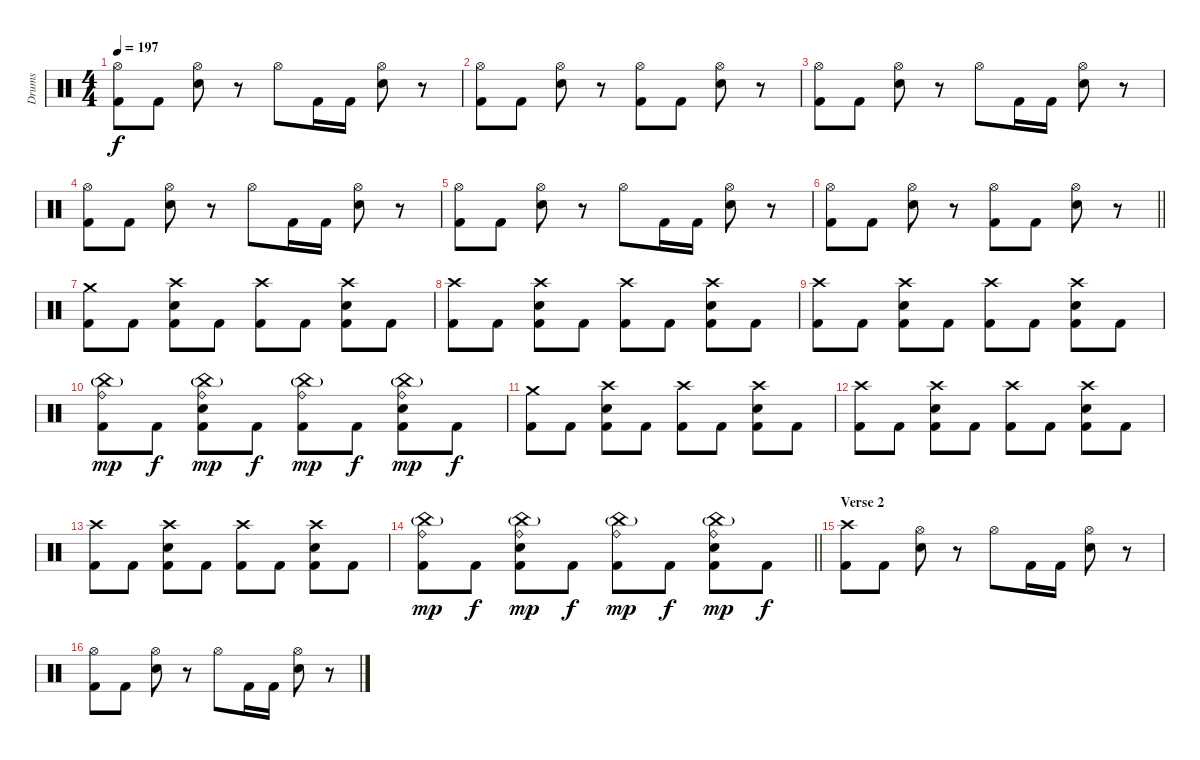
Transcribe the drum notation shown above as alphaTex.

\track ("Drums" "Drums") {instrument percussion}
\staff {score}
\articulation defaults
\ts (4 4)
\tempo 197
\clef neutral
\ks c
("Hi-Hat (open)" "Kick (hit) 2").8{dy f} "Kick (hit) 2".8 ("Hi-Hat (open)" "Electric Snare (hit)").8 r.8 "Hi-Hat (open)".8 "Kick (hit) 2".16 "Kick (hit) 2".16 ("Hi-Hat (open)" "Electric Snare (hit)").8 r.8 |
("Hi-Hat (open)" "Kick (hit) 2").8 "Kick (hit) 2".8 ("Hi-Hat (open)" "Electric Snare (hit)").8 r.8 ("Hi-Hat (open)" "Kick (hit) 2").8 "Kick (hit) 2".8 ("Hi-Hat (open)" "Electric Snare (hit)").8 r.8 |
("Hi-Hat (open)" "Kick (hit) 2").8 "Kick (hit) 2".8 ("Hi-Hat (open)" "Electric Snare (hit)").8 r.8 "Hi-Hat (open)".8 "Kick (hit) 2".16 "Kick (hit) 2".16 ("Hi-Hat (open)" "Electric Snare (hit)").8 r.8 |
("Hi-Hat (open)" "Kick (hit) 2").8 "Kick (hit) 2".8 ("Hi-Hat (open)" "Electric Snare (hit)").8 r.8 "Hi-Hat (open)".8 "Kick (hit) 2".16 "Kick (hit) 2".16 ("Hi-Hat (open)" "Electric Snare (hit)").8 r.8 |
("Hi-Hat (open)" "Kick (hit) 2").8 "Kick (hit) 2".8 ("Hi-Hat (open)" "Electric Snare (hit)").8 r.8 "Hi-Hat (open)".8 "Kick (hit) 2".16 "Kick (hit) 2".16 ("Hi-Hat (open)" "Electric Snare (hit)").8 r.8 |
\barLineRight lightlight
("Hi-Hat (open)" "Kick (hit) 2").8 "Kick (hit) 2".8 ("Hi-Hat (open)" "Electric Snare (hit)").8 r.8 ("Hi-Hat (open)" "Kick (hit) 2").8 "Kick (hit) 2".8 ("Hi-Hat (open)" "Electric Snare (hit)").8 r.8 |
\section ("" "")
("Crash medium (hit)" "Kick (hit) 2").8 "Kick (hit) 2".8 ("Crash high (hit)" "Electric Snare (hit)" "Kick (hit) 2").8 "Kick (hit) 2".8 ("Crash high (hit)" "Kick (hit) 2").8 "Kick (hit) 2".8 ("Crash high (hit)" "Electric Snare (hit)" "Kick (hit) 2").8 "Kick (hit) 2".8 |
("Crash high (hit)" "Kick (hit) 2").8 "Kick (hit) 2".8 ("Crash high (hit)" "Electric Snare (hit)" "Kick (hit) 2").8 "Kick (hit) 2".8 ("Crash high (hit)" "Kick (hit) 2").8 "Kick (hit) 2".8 ("Crash high (hit)" "Electric Snare (hit)" "Kick (hit) 2").8 "Kick (hit) 2".8 |
("Crash high (hit)" "Kick (hit) 2").8 "Kick (hit) 2".8 ("Crash high (hit)" "Electric Snare (hit)" "Kick (hit) 2").8 "Kick (hit) 2".8 ("Crash high (hit)" "Kick (hit) 2").8 "Kick (hit) 2".8 ("Crash high (hit)" "Electric Snare (hit)" "Kick (hit) 2").8 "Kick (hit) 2".8 |
("China (hit)"{g} "Ride (bell)" "Kick (hit) 2").8{dy mp} "Kick (hit) 2".8{dy f} ("China (hit)"{g} "Ride (bell)" "Electric Snare (hit)" "Kick (hit) 2").8{dy mp} "Kick (hit) 2".8{dy f} ("China (hit)"{g} "Ride (bell)" "Kick (hit) 2").8{dy mp} "Kick (hit) 2".8{dy f} ("China (hit)"{g} "Ride (bell)" "Electric Snare (hit)" "Kick (hit) 2").8{dy mp} "Kick (hit) 2".8{dy f} |
("Crash medium (hit)" "Kick (hit) 2").8 "Kick (hit) 2".8 ("Crash high (hit)" "Electric Snare (hit)" "Kick (hit) 2").8 "Kick (hit) 2".8 ("Crash high (hit)" "Kick (hit) 2").8 "Kick (hit) 2".8 ("Crash high (hit)" "Electric Snare (hit)" "Kick (hit) 2").8 "Kick (hit) 2".8 |
("Crash high (hit)" "Kick (hit) 2").8 "Kick (hit) 2".8 ("Crash high (hit)" "Electric Snare (hit)" "Kick (hit) 2").8 "Kick (hit) 2".8 ("Crash high (hit)" "Kick (hit) 2").8 "Kick (hit) 2".8 ("Crash high (hit)" "Electric Snare (hit)" "Kick (hit) 2").8 "Kick (hit) 2".8 |
("Crash high (hit)" "Kick (hit) 2").8 "Kick (hit) 2".8 ("Crash high (hit)" "Electric Snare (hit)" "Kick (hit) 2").8 "Kick (hit) 2".8 ("Crash high (hit)" "Kick (hit) 2").8 "Kick (hit) 2".8 ("Crash high (hit)" "Electric Snare (hit)" "Kick (hit) 2").8 "Kick (hit) 2".8 |
\barLineRight lightlight
("China (hit)"{g} "Ride (bell)" "Kick (hit) 2").8{dy mp} "Kick (hit) 2".8{dy f} ("China (hit)"{g} "Ride (bell)" "Electric Snare (hit)" "Kick (hit) 2").8{dy mp} "Kick (hit) 2".8{dy f} ("China (hit)"{g} "Ride (bell)" "Kick (hit) 2").8{dy mp} "Kick (hit) 2".8{dy f} ("China (hit)"{g} "Ride (bell)" "Electric Snare (hit)" "Kick (hit) 2").8{dy mp} "Kick (hit) 2".8{dy f} |
\section ("" "Verse 2")
("Crash high (hit)" "Kick (hit) 2").8 "Kick (hit) 2".8 ("Hi-Hat (open)" "Electric Snare (hit)").8 r.8 "Hi-Hat (open)".8 "Kick (hit) 2".16 "Kick (hit) 2".16 ("Hi-Hat (open)" "Electric Snare (hit)").8 r.8 |
("Hi-Hat (open)" "Kick (hit) 2").8 "Kick (hit) 2".8 ("Hi-Hat (open)" "Electric Snare (hit)").8 r.8 "Hi-Hat (open)".8 "Kick (hit) 2".16 "Kick (hit) 2".16 ("Hi-Hat (open)" "Electric Snare (hit)").8 r.8
